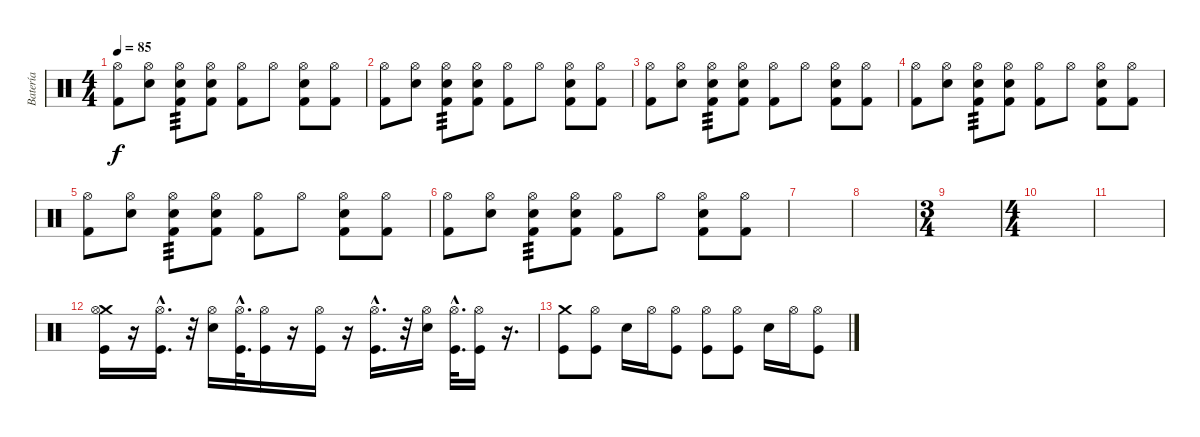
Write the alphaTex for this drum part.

\track ("Batería" "Batería") {instrument percussion}
\staff {score}
\articulation defaults
\ts (4 4)
\tempo 85
\clef neutral
\ks c
("Hi-Hat (open)" "Kick (hit) 2").8{dy f} ("Hi-Hat (open)" "Electric Snare (hit)").8 ("Hi-Hat (open)" "Electric Snare (hit)" "Kick (hit) 2").8{tp 3} ("Hi-Hat (open)" "Electric Snare (hit)" "Kick (hit) 2").8 ("Hi-Hat (open)" "Kick (hit) 2").8 "Hi-Hat (open)".8 ("Hi-Hat (open)" "Electric Snare (hit)" "Kick (hit) 2").8 ("Hi-Hat (open)" "Kick (hit) 2").8 |
("Hi-Hat (open)" "Kick (hit) 2").8 ("Hi-Hat (open)" "Electric Snare (hit)").8 ("Hi-Hat (open)" "Electric Snare (hit)" "Kick (hit) 2").8{tp 3} ("Hi-Hat (open)" "Electric Snare (hit)" "Kick (hit) 2").8 ("Hi-Hat (open)" "Kick (hit) 2").8 "Hi-Hat (open)".8 ("Hi-Hat (open)" "Electric Snare (hit)" "Kick (hit) 2").8 ("Hi-Hat (open)" "Kick (hit) 2").8 |
("Hi-Hat (open)" "Kick (hit) 2").8 ("Hi-Hat (open)" "Electric Snare (hit)").8 ("Hi-Hat (open)" "Electric Snare (hit)" "Kick (hit) 2").8{tp 3} ("Hi-Hat (open)" "Electric Snare (hit)" "Kick (hit) 2").8 ("Hi-Hat (open)" "Kick (hit) 2").8 "Hi-Hat (open)".8 ("Hi-Hat (open)" "Electric Snare (hit)" "Kick (hit) 2").8 ("Hi-Hat (open)" "Kick (hit) 2").8 |
("Hi-Hat (open)" "Kick (hit) 2").8 ("Hi-Hat (open)" "Electric Snare (hit)").8 ("Hi-Hat (open)" "Electric Snare (hit)" "Kick (hit) 2").8{tp 3} ("Hi-Hat (open)" "Electric Snare (hit)" "Kick (hit) 2").8 ("Hi-Hat (open)" "Kick (hit) 2").8 "Hi-Hat (open)".8 ("Hi-Hat (open)" "Electric Snare (hit)" "Kick (hit) 2").8 ("Hi-Hat (open)" "Kick (hit) 2").8 |
("Hi-Hat (open)" "Kick (hit) 2").8 ("Hi-Hat (open)" "Electric Snare (hit)").8 ("Hi-Hat (open)" "Electric Snare (hit)" "Kick (hit) 2").8{tp 3} ("Hi-Hat (open)" "Electric Snare (hit)" "Kick (hit) 2").8 ("Hi-Hat (open)" "Kick (hit) 2").8 "Hi-Hat (open)".8 ("Hi-Hat (open)" "Electric Snare (hit)" "Kick (hit) 2").8 ("Hi-Hat (open)" "Kick (hit) 2").8 |
("Hi-Hat (open)" "Kick (hit) 2").8 ("Hi-Hat (open)" "Electric Snare (hit)").8 ("Hi-Hat (open)" "Electric Snare (hit)" "Kick (hit) 2").8{tp 3} ("Hi-Hat (open)" "Electric Snare (hit)" "Kick (hit) 2").8 ("Hi-Hat (open)" "Kick (hit) 2").8 "Hi-Hat (open)".8 ("Hi-Hat (open)" "Electric Snare (hit)" "Kick (hit) 2").8 ("Hi-Hat (open)" "Kick (hit) 2").8 |
|
|
\ts (3 4)
|
\ts (4 4)
|
|
("Kick (hit)" "Crash medium (hit)" "Hi-Hat (open)").16 r.16 ("Kick (hit)"{hac} "Hi-Hat (open)"{hac}).16{d} r.32 ("Electric Snare (hit)" "Hi-Hat (open)").16 ("Kick (hit)"{hac} "Hi-Hat (open)"{hac}).32{d} ("Kick (hit)" "Hi-Hat (open)").16 r.16 ("Kick (hit)" "Hi-Hat (open)").16 r.16 ("Kick (hit)"{hac} "Hi-Hat (open)"{hac}).16{d} r.32 ("Electric Snare (hit)" "Hi-Hat (open)").16 ("Kick (hit)"{hac} "Hi-Hat (open)"{hac}).32{d} ("Kick (hit)" "Hi-Hat (open)").16 r.16{d} |
("Kick (hit)" "Crash medium (hit)").8 ("Kick (hit)" "Hi-Hat (open)").8 "Electric Snare (hit)".16 "Hi-Hat (open)".16 ("Kick (hit)" "Hi-Hat (open)").8 ("Kick (hit)" "Hi-Hat (open)").8 ("Kick (hit)" "Hi-Hat (open)").8 "Electric Snare (hit)".16 "Hi-Hat (open)".16 ("Kick (hit)" "Hi-Hat (open)").8
